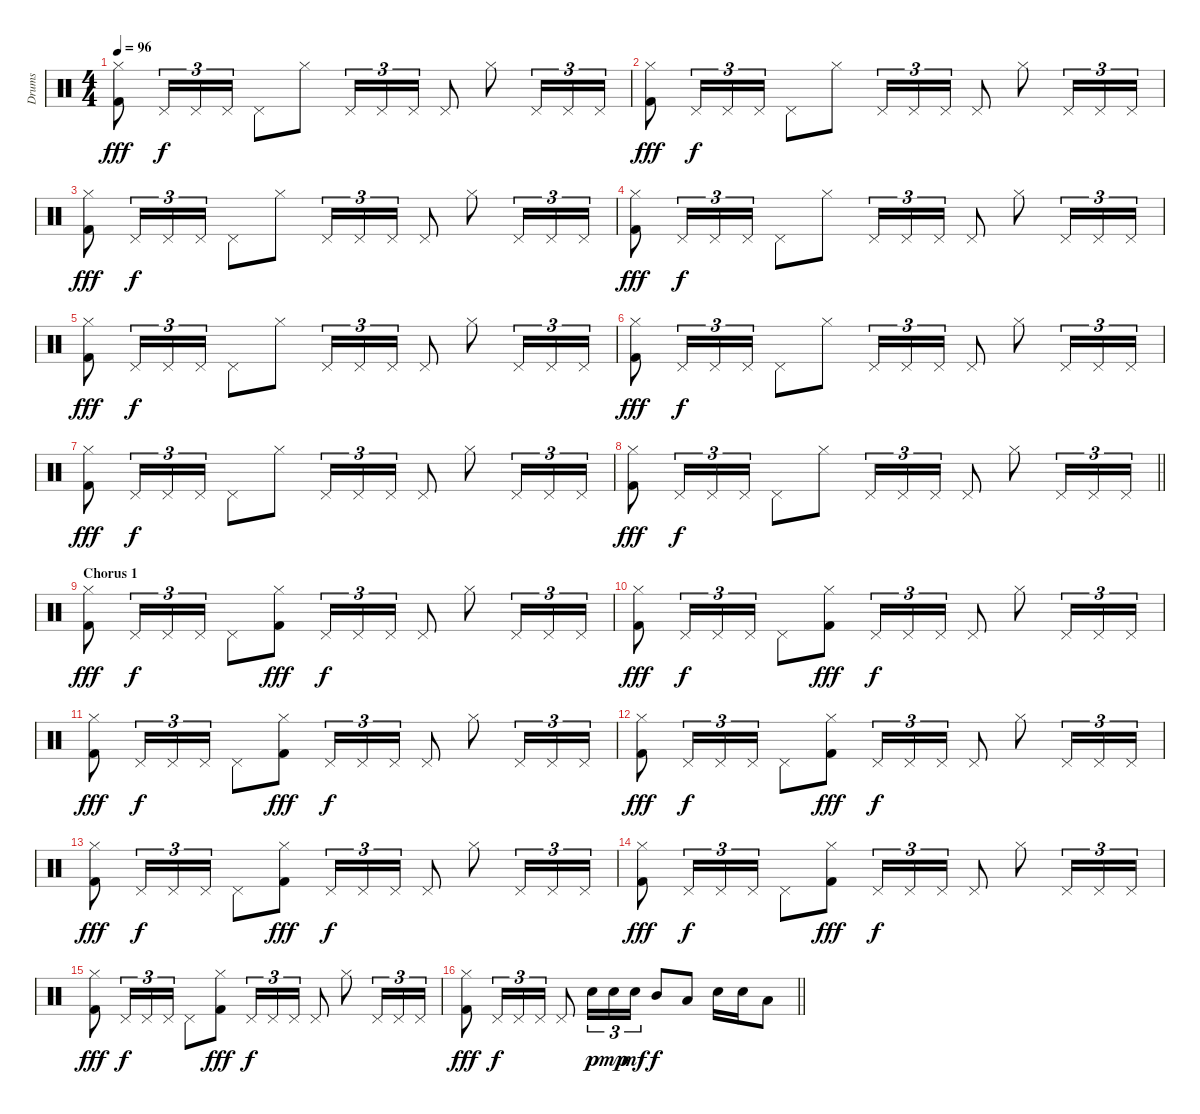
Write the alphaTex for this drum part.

\track ("Drums" "Drums") {instrument percussion}
\staff {score}
\articulation defaults
\ts (4 4)
\tempo 96
\clef neutral
\ks c
("Hi-Hat (closed)" "Kick (hit) 2").8{dy fff} "Pedal Hi-Hat (hit)".16{tu (3 2) dy f} "Pedal Hi-Hat (hit)".16{tu (3 2)} "Pedal Hi-Hat (hit)".16{tu (3 2)} "Pedal Hi-Hat (hit)".8 "Hi-Hat (closed)".8 "Pedal Hi-Hat (hit)".16{tu (3 2)} "Pedal Hi-Hat (hit)".16{tu (3 2)} "Pedal Hi-Hat (hit)".16{tu (3 2)} "Pedal Hi-Hat (hit)".8 "Hi-Hat (closed)".8 "Pedal Hi-Hat (hit)".16{tu (3 2)} "Pedal Hi-Hat (hit)".16{tu (3 2)} "Pedal Hi-Hat (hit)".16{tu (3 2)} |
("Hi-Hat (closed)" "Kick (hit) 2").8{dy fff} "Pedal Hi-Hat (hit)".16{tu (3 2) dy f} "Pedal Hi-Hat (hit)".16{tu (3 2)} "Pedal Hi-Hat (hit)".16{tu (3 2)} "Pedal Hi-Hat (hit)".8 "Hi-Hat (closed)".8 "Pedal Hi-Hat (hit)".16{tu (3 2)} "Pedal Hi-Hat (hit)".16{tu (3 2)} "Pedal Hi-Hat (hit)".16{tu (3 2)} "Pedal Hi-Hat (hit)".8 "Hi-Hat (closed)".8 "Pedal Hi-Hat (hit)".16{tu (3 2)} "Pedal Hi-Hat (hit)".16{tu (3 2)} "Pedal Hi-Hat (hit)".16{tu (3 2)} |
("Hi-Hat (closed)" "Kick (hit) 2").8{dy fff} "Pedal Hi-Hat (hit)".16{tu (3 2) dy f} "Pedal Hi-Hat (hit)".16{tu (3 2)} "Pedal Hi-Hat (hit)".16{tu (3 2)} "Pedal Hi-Hat (hit)".8 "Hi-Hat (closed)".8 "Pedal Hi-Hat (hit)".16{tu (3 2)} "Pedal Hi-Hat (hit)".16{tu (3 2)} "Pedal Hi-Hat (hit)".16{tu (3 2)} "Pedal Hi-Hat (hit)".8 "Hi-Hat (closed)".8 "Pedal Hi-Hat (hit)".16{tu (3 2)} "Pedal Hi-Hat (hit)".16{tu (3 2)} "Pedal Hi-Hat (hit)".16{tu (3 2)} |
("Hi-Hat (closed)" "Kick (hit) 2").8{dy fff} "Pedal Hi-Hat (hit)".16{tu (3 2) dy f} "Pedal Hi-Hat (hit)".16{tu (3 2)} "Pedal Hi-Hat (hit)".16{tu (3 2)} "Pedal Hi-Hat (hit)".8 "Hi-Hat (closed)".8 "Pedal Hi-Hat (hit)".16{tu (3 2)} "Pedal Hi-Hat (hit)".16{tu (3 2)} "Pedal Hi-Hat (hit)".16{tu (3 2)} "Pedal Hi-Hat (hit)".8 "Hi-Hat (closed)".8 "Pedal Hi-Hat (hit)".16{tu (3 2)} "Pedal Hi-Hat (hit)".16{tu (3 2)} "Pedal Hi-Hat (hit)".16{tu (3 2)} |
("Hi-Hat (closed)" "Kick (hit) 2").8{dy fff} "Pedal Hi-Hat (hit)".16{tu (3 2) dy f} "Pedal Hi-Hat (hit)".16{tu (3 2)} "Pedal Hi-Hat (hit)".16{tu (3 2)} "Pedal Hi-Hat (hit)".8 "Hi-Hat (closed)".8 "Pedal Hi-Hat (hit)".16{tu (3 2)} "Pedal Hi-Hat (hit)".16{tu (3 2)} "Pedal Hi-Hat (hit)".16{tu (3 2)} "Pedal Hi-Hat (hit)".8 "Hi-Hat (closed)".8 "Pedal Hi-Hat (hit)".16{tu (3 2)} "Pedal Hi-Hat (hit)".16{tu (3 2)} "Pedal Hi-Hat (hit)".16{tu (3 2)} |
("Hi-Hat (closed)" "Kick (hit) 2").8{dy fff} "Pedal Hi-Hat (hit)".16{tu (3 2) dy f} "Pedal Hi-Hat (hit)".16{tu (3 2)} "Pedal Hi-Hat (hit)".16{tu (3 2)} "Pedal Hi-Hat (hit)".8 "Hi-Hat (closed)".8 "Pedal Hi-Hat (hit)".16{tu (3 2)} "Pedal Hi-Hat (hit)".16{tu (3 2)} "Pedal Hi-Hat (hit)".16{tu (3 2)} "Pedal Hi-Hat (hit)".8 "Hi-Hat (closed)".8 "Pedal Hi-Hat (hit)".16{tu (3 2)} "Pedal Hi-Hat (hit)".16{tu (3 2)} "Pedal Hi-Hat (hit)".16{tu (3 2)} |
("Hi-Hat (closed)" "Kick (hit) 2").8{dy fff} "Pedal Hi-Hat (hit)".16{tu (3 2) dy f} "Pedal Hi-Hat (hit)".16{tu (3 2)} "Pedal Hi-Hat (hit)".16{tu (3 2)} "Pedal Hi-Hat (hit)".8 "Hi-Hat (closed)".8 "Pedal Hi-Hat (hit)".16{tu (3 2)} "Pedal Hi-Hat (hit)".16{tu (3 2)} "Pedal Hi-Hat (hit)".16{tu (3 2)} "Pedal Hi-Hat (hit)".8 "Hi-Hat (closed)".8 "Pedal Hi-Hat (hit)".16{tu (3 2)} "Pedal Hi-Hat (hit)".16{tu (3 2)} "Pedal Hi-Hat (hit)".16{tu (3 2)} |
\barLineRight lightlight
("Hi-Hat (closed)" "Kick (hit) 2").8{dy fff} "Pedal Hi-Hat (hit)".16{tu (3 2) dy f} "Pedal Hi-Hat (hit)".16{tu (3 2)} "Pedal Hi-Hat (hit)".16{tu (3 2)} "Pedal Hi-Hat (hit)".8 "Hi-Hat (closed)".8 "Pedal Hi-Hat (hit)".16{tu (3 2)} "Pedal Hi-Hat (hit)".16{tu (3 2)} "Pedal Hi-Hat (hit)".16{tu (3 2)} "Pedal Hi-Hat (hit)".8 "Hi-Hat (closed)".8 "Pedal Hi-Hat (hit)".16{tu (3 2)} "Pedal Hi-Hat (hit)".16{tu (3 2)} "Pedal Hi-Hat (hit)".16{tu (3 2)} |
\section ("" "Chorus 1")
("Hi-Hat (closed)" "Kick (hit) 2").8{dy fff} "Pedal Hi-Hat (hit)".16{tu (3 2) dy f} "Pedal Hi-Hat (hit)".16{tu (3 2)} "Pedal Hi-Hat (hit)".16{tu (3 2)} "Pedal Hi-Hat (hit)".8 ("Hi-Hat (closed)" "Kick (hit) 2").8{dy fff} "Pedal Hi-Hat (hit)".16{tu (3 2) dy f} "Pedal Hi-Hat (hit)".16{tu (3 2)} "Pedal Hi-Hat (hit)".16{tu (3 2)} "Pedal Hi-Hat (hit)".8 "Hi-Hat (closed)".8 "Pedal Hi-Hat (hit)".16{tu (3 2)} "Pedal Hi-Hat (hit)".16{tu (3 2)} "Pedal Hi-Hat (hit)".16{tu (3 2)} |
("Hi-Hat (closed)" "Kick (hit) 2").8{dy fff} "Pedal Hi-Hat (hit)".16{tu (3 2) dy f} "Pedal Hi-Hat (hit)".16{tu (3 2)} "Pedal Hi-Hat (hit)".16{tu (3 2)} "Pedal Hi-Hat (hit)".8 ("Hi-Hat (closed)" "Kick (hit) 2").8{dy fff} "Pedal Hi-Hat (hit)".16{tu (3 2) dy f} "Pedal Hi-Hat (hit)".16{tu (3 2)} "Pedal Hi-Hat (hit)".16{tu (3 2)} "Pedal Hi-Hat (hit)".8 "Hi-Hat (closed)".8 "Pedal Hi-Hat (hit)".16{tu (3 2)} "Pedal Hi-Hat (hit)".16{tu (3 2)} "Pedal Hi-Hat (hit)".16{tu (3 2)} |
("Hi-Hat (closed)" "Kick (hit) 2").8{dy fff} "Pedal Hi-Hat (hit)".16{tu (3 2) dy f} "Pedal Hi-Hat (hit)".16{tu (3 2)} "Pedal Hi-Hat (hit)".16{tu (3 2)} "Pedal Hi-Hat (hit)".8 ("Hi-Hat (closed)" "Kick (hit) 2").8{dy fff} "Pedal Hi-Hat (hit)".16{tu (3 2) dy f} "Pedal Hi-Hat (hit)".16{tu (3 2)} "Pedal Hi-Hat (hit)".16{tu (3 2)} "Pedal Hi-Hat (hit)".8 "Hi-Hat (closed)".8 "Pedal Hi-Hat (hit)".16{tu (3 2)} "Pedal Hi-Hat (hit)".16{tu (3 2)} "Pedal Hi-Hat (hit)".16{tu (3 2)} |
("Hi-Hat (closed)" "Kick (hit) 2").8{dy fff} "Pedal Hi-Hat (hit)".16{tu (3 2) dy f} "Pedal Hi-Hat (hit)".16{tu (3 2)} "Pedal Hi-Hat (hit)".16{tu (3 2)} "Pedal Hi-Hat (hit)".8 ("Hi-Hat (closed)" "Kick (hit) 2").8{dy fff} "Pedal Hi-Hat (hit)".16{tu (3 2) dy f} "Pedal Hi-Hat (hit)".16{tu (3 2)} "Pedal Hi-Hat (hit)".16{tu (3 2)} "Pedal Hi-Hat (hit)".8 "Hi-Hat (closed)".8 "Pedal Hi-Hat (hit)".16{tu (3 2)} "Pedal Hi-Hat (hit)".16{tu (3 2)} "Pedal Hi-Hat (hit)".16{tu (3 2)} |
("Hi-Hat (closed)" "Kick (hit) 2").8{dy fff} "Pedal Hi-Hat (hit)".16{tu (3 2) dy f} "Pedal Hi-Hat (hit)".16{tu (3 2)} "Pedal Hi-Hat (hit)".16{tu (3 2)} "Pedal Hi-Hat (hit)".8 ("Hi-Hat (closed)" "Kick (hit) 2").8{dy fff} "Pedal Hi-Hat (hit)".16{tu (3 2) dy f} "Pedal Hi-Hat (hit)".16{tu (3 2)} "Pedal Hi-Hat (hit)".16{tu (3 2)} "Pedal Hi-Hat (hit)".8 "Hi-Hat (closed)".8 "Pedal Hi-Hat (hit)".16{tu (3 2)} "Pedal Hi-Hat (hit)".16{tu (3 2)} "Pedal Hi-Hat (hit)".16{tu (3 2)} |
("Hi-Hat (closed)" "Kick (hit) 2").8{dy fff} "Pedal Hi-Hat (hit)".16{tu (3 2) dy f} "Pedal Hi-Hat (hit)".16{tu (3 2)} "Pedal Hi-Hat (hit)".16{tu (3 2)} "Pedal Hi-Hat (hit)".8 ("Hi-Hat (closed)" "Kick (hit) 2").8{dy fff} "Pedal Hi-Hat (hit)".16{tu (3 2) dy f} "Pedal Hi-Hat (hit)".16{tu (3 2)} "Pedal Hi-Hat (hit)".16{tu (3 2)} "Pedal Hi-Hat (hit)".8 "Hi-Hat (closed)".8 "Pedal Hi-Hat (hit)".16{tu (3 2)} "Pedal Hi-Hat (hit)".16{tu (3 2)} "Pedal Hi-Hat (hit)".16{tu (3 2)} |
("Hi-Hat (closed)" "Kick (hit) 2").8{dy fff} "Pedal Hi-Hat (hit)".16{tu (3 2) dy f} "Pedal Hi-Hat (hit)".16{tu (3 2)} "Pedal Hi-Hat (hit)".16{tu (3 2)} "Pedal Hi-Hat (hit)".8 ("Hi-Hat (closed)" "Kick (hit) 2").8{dy fff} "Pedal Hi-Hat (hit)".16{tu (3 2) dy f} "Pedal Hi-Hat (hit)".16{tu (3 2)} "Pedal Hi-Hat (hit)".16{tu (3 2)} "Pedal Hi-Hat (hit)".8 "Hi-Hat (closed)".8 "Pedal Hi-Hat (hit)".16{tu (3 2)} "Pedal Hi-Hat (hit)".16{tu (3 2)} "Pedal Hi-Hat (hit)".16{tu (3 2)} |
\barLineRight lightlight
("Hi-Hat (closed)" "Kick (hit) 2").8{dy fff} "Pedal Hi-Hat (hit)".16{tu (3 2) dy f} "Pedal Hi-Hat (hit)".16{tu (3 2)} "Pedal Hi-Hat (hit)".16{tu (3 2)} "Pedal Hi-Hat (hit)".8 "Snare (hit) 2".16{tu (3 2) dy p} "Snare (hit) 2".16{tu (3 2) dy mp} "Snare (hit) 2".16{tu (3 2) dy mf} "Mid Tom (hit)".8{dy f} "Low Tom (hit)".8 "Snare (hit) 2".16 "Snare (hit) 2".16 "Low Tom (hit)".8
